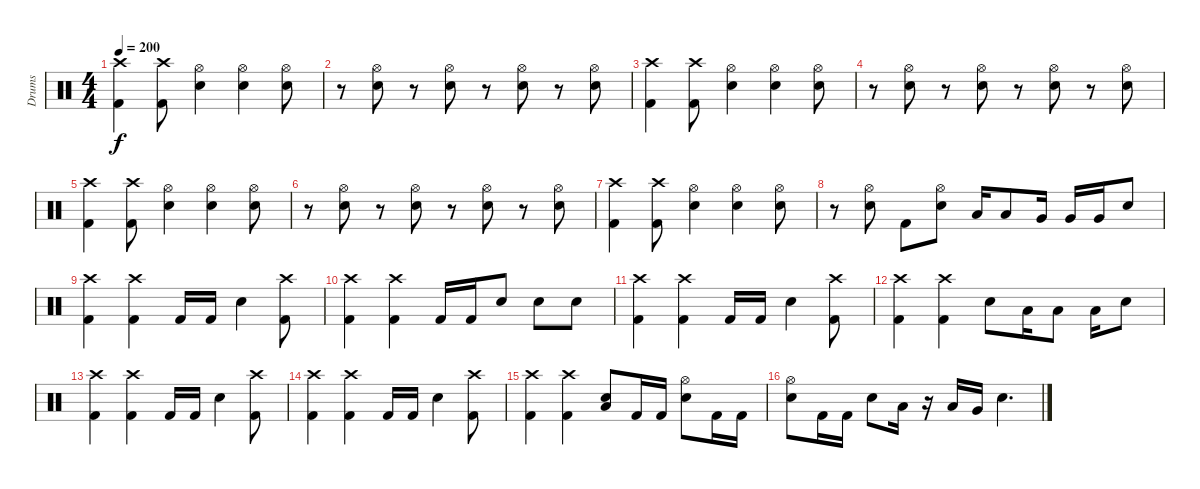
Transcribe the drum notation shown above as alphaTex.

\track ("Drums" "Drums") {instrument percussion}
\staff {score}
\articulation defaults
\ts (4 4)
\tempo 200
\clef neutral
\ks c
("Crash high (hit)" "Kick (hit) 2").4{dy f} ("Crash high (hit)" "Kick (hit) 2").8 ("Hi-Hat (open)" "Snare (hit) 2").4 ("Hi-Hat (open)" "Snare (hit) 2").4 ("Hi-Hat (open)" "Snare (hit) 2").8 |
r.8 ("Hi-Hat (open)" "Snare (hit) 2").8 r.8 ("Hi-Hat (open)" "Snare (hit) 2").8 r.8 ("Hi-Hat (open)" "Snare (hit) 2").8 r.8 ("Hi-Hat (open)" "Snare (hit) 2").8 |
("Crash high (hit)" "Kick (hit) 2").4 ("Crash high (hit)" "Kick (hit) 2").8 ("Hi-Hat (open)" "Snare (hit) 2").4 ("Hi-Hat (open)" "Snare (hit) 2").4 ("Hi-Hat (open)" "Snare (hit) 2").8 |
r.8 ("Hi-Hat (open)" "Snare (hit) 2").8 r.8 ("Hi-Hat (open)" "Snare (hit) 2").8 r.8 ("Hi-Hat (open)" "Snare (hit) 2").8 r.8 ("Hi-Hat (open)" "Snare (hit) 2").8 |
("Crash high (hit)" "Kick (hit) 2").4 ("Crash high (hit)" "Kick (hit) 2").8 ("Hi-Hat (open)" "Snare (hit) 2").4 ("Hi-Hat (open)" "Snare (hit) 2").4 ("Hi-Hat (open)" "Snare (hit) 2").8 |
r.8 ("Hi-Hat (open)" "Snare (hit) 2").8 r.8 ("Hi-Hat (open)" "Snare (hit) 2").8 r.8 ("Hi-Hat (open)" "Snare (hit) 2").8 r.8 ("Hi-Hat (open)" "Snare (hit) 2").8 |
("Crash high (hit)" "Kick (hit) 2").4 ("Crash high (hit)" "Kick (hit) 2").8 ("Hi-Hat (open)" "Snare (hit) 2").4 ("Hi-Hat (open)" "Snare (hit) 2").4 ("Hi-Hat (open)" "Snare (hit) 2").8 |
r.8 ("Hi-Hat (open)" "Snare (hit) 2").8 "Kick (hit) 2".8 ("Hi-Hat (open)" "Snare (hit) 2").8 "Low Tom (hit)".16 "Low Tom (hit)".8 "Very Low Tom (hit)".16 "Very Low Tom (hit)".16 "Very Low Tom (hit)".16 "Snare (hit) 2".8 |
("Crash high (hit)" "Kick (hit) 2").4 ("Crash high (hit)" "Kick (hit) 2").4 "Kick (hit) 2".16 "Kick (hit) 2".16 "Snare (hit) 2".4 ("Crash high (hit)" "Kick (hit) 2").8 |
("Crash high (hit)" "Kick (hit) 2").4 ("Crash high (hit)" "Kick (hit) 2").4 "Kick (hit) 2".16 "Kick (hit) 2".16 "Snare (hit) 2".8 "Snare (hit) 2".8 "Snare (hit) 2".8 |
("Crash high (hit)" "Kick (hit) 2").4 ("Crash high (hit)" "Kick (hit) 2").4 "Kick (hit) 2".16 "Kick (hit) 2".16 "Snare (hit) 2".4 ("Crash high (hit)" "Kick (hit) 2").8 |
("Crash high (hit)" "Kick (hit) 2").4 ("Crash high (hit)" "Kick (hit) 2").4 "Snare (hit) 2".8 "Low Tom (hit)".16 "Low Tom (hit)".8 "Low Tom (hit)".16 "Snare (hit) 2".8 |
("Crash high (hit)" "Kick (hit) 2").4 ("Crash high (hit)" "Kick (hit) 2").4 "Kick (hit) 2".16 "Kick (hit) 2".16 "Snare (hit) 2".4 ("Crash high (hit)" "Kick (hit) 2").8 |
("Crash high (hit)" "Kick (hit) 2").4 ("Crash high (hit)" "Kick (hit) 2").4 "Kick (hit) 2".16 "Kick (hit) 2".16 "Snare (hit) 2".4 ("Crash high (hit)" "Kick (hit) 2").8 |
("Crash high (hit)" "Kick (hit) 2").4 ("Crash high (hit)" "Kick (hit) 2").4 ("Low Tom (hit)" "Snare (hit) 2").8 "Kick (hit) 2".16 "Kick (hit) 2".16 ("Hi-Hat (open)" "Snare (hit) 2").8 "Kick (hit) 2".16 "Kick (hit) 2".16 |
("Hi-Hat (open)" "Snare (hit) 2").8 "Kick (hit) 2".16 "Kick (hit) 2".16 "Snare (hit) 2".8 "Low Tom (hit)".16 r.16 "Low Tom (hit)".16 "Very Low Tom (hit)".16 "Snare (hit) 2".4{d}
